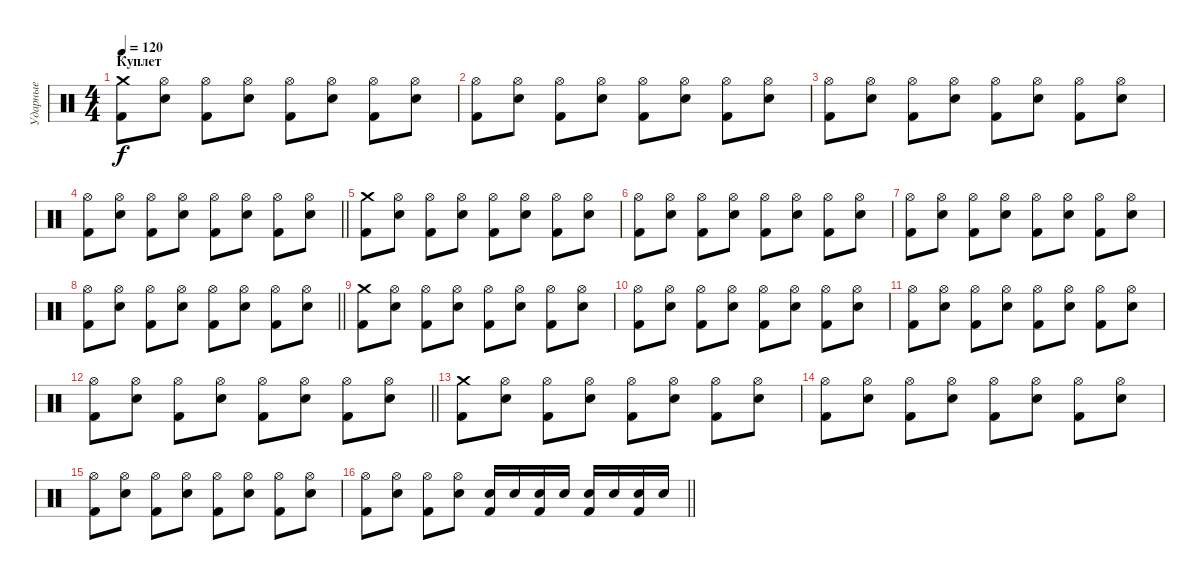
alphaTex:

\track ("Ударные" "Ударные") {instrument percussion}
\staff {score}
\articulation defaults
\ts (4 4)
\section ("" "Куплет")
\tempo 120
\clef neutral
\ks c
("Crash medium (hit)" "Kick (hit) 2").8{dy f} ("Hi-Hat (open)" "Snare (hit) 2").8 ("Hi-Hat (open)" "Kick (hit) 2").8 ("Hi-Hat (open)" "Snare (hit) 2").8 ("Hi-Hat (open)" "Kick (hit) 2").8 ("Hi-Hat (open)" "Snare (hit) 2").8 ("Hi-Hat (open)" "Kick (hit) 2").8 ("Hi-Hat (open)" "Snare (hit) 2").8 |
("Hi-Hat (open)" "Kick (hit) 2").8 ("Hi-Hat (open)" "Snare (hit) 2").8 ("Hi-Hat (open)" "Kick (hit) 2").8 ("Hi-Hat (open)" "Snare (hit) 2").8 ("Hi-Hat (open)" "Kick (hit) 2").8 ("Hi-Hat (open)" "Snare (hit) 2").8 ("Hi-Hat (open)" "Kick (hit) 2").8 ("Hi-Hat (open)" "Snare (hit) 2").8 |
("Hi-Hat (open)" "Kick (hit) 2").8 ("Hi-Hat (open)" "Snare (hit) 2").8 ("Hi-Hat (open)" "Kick (hit) 2").8 ("Hi-Hat (open)" "Snare (hit) 2").8 ("Hi-Hat (open)" "Kick (hit) 2").8 ("Hi-Hat (open)" "Snare (hit) 2").8 ("Hi-Hat (open)" "Kick (hit) 2").8 ("Hi-Hat (open)" "Snare (hit) 2").8 |
\barLineRight lightlight
("Hi-Hat (open)" "Kick (hit) 2").8 ("Hi-Hat (open)" "Snare (hit) 2").8 ("Hi-Hat (open)" "Kick (hit) 2").8 ("Hi-Hat (open)" "Snare (hit) 2").8 ("Hi-Hat (open)" "Kick (hit) 2").8 ("Hi-Hat (open)" "Snare (hit) 2").8 ("Hi-Hat (open)" "Kick (hit) 2").8 ("Hi-Hat (open)" "Snare (hit) 2").8 |
("Crash medium (hit)" "Kick (hit) 2").8 ("Hi-Hat (open)" "Snare (hit) 2").8 ("Hi-Hat (open)" "Kick (hit) 2").8 ("Hi-Hat (open)" "Snare (hit) 2").8 ("Hi-Hat (open)" "Kick (hit) 2").8 ("Hi-Hat (open)" "Snare (hit) 2").8 ("Hi-Hat (open)" "Kick (hit) 2").8 ("Hi-Hat (open)" "Snare (hit) 2").8 |
("Hi-Hat (open)" "Kick (hit) 2").8 ("Hi-Hat (open)" "Snare (hit) 2").8 ("Hi-Hat (open)" "Kick (hit) 2").8 ("Hi-Hat (open)" "Snare (hit) 2").8 ("Hi-Hat (open)" "Kick (hit) 2").8 ("Hi-Hat (open)" "Snare (hit) 2").8 ("Hi-Hat (open)" "Kick (hit) 2").8 ("Hi-Hat (open)" "Snare (hit) 2").8 |
("Hi-Hat (open)" "Kick (hit) 2").8 ("Hi-Hat (open)" "Snare (hit) 2").8 ("Hi-Hat (open)" "Kick (hit) 2").8 ("Hi-Hat (open)" "Snare (hit) 2").8 ("Hi-Hat (open)" "Kick (hit) 2").8 ("Hi-Hat (open)" "Snare (hit) 2").8 ("Hi-Hat (open)" "Kick (hit) 2").8 ("Hi-Hat (open)" "Snare (hit) 2").8 |
\barLineRight lightlight
("Hi-Hat (open)" "Kick (hit) 2").8 ("Hi-Hat (open)" "Snare (hit) 2").8 ("Hi-Hat (open)" "Kick (hit) 2").8 ("Hi-Hat (open)" "Snare (hit) 2").8 ("Hi-Hat (open)" "Kick (hit) 2").8 ("Hi-Hat (open)" "Snare (hit) 2").8 ("Hi-Hat (open)" "Kick (hit) 2").8 ("Hi-Hat (open)" "Snare (hit) 2").8 |
("Crash medium (hit)" "Kick (hit) 2").8 ("Hi-Hat (open)" "Snare (hit) 2").8 ("Hi-Hat (open)" "Kick (hit) 2").8 ("Hi-Hat (open)" "Snare (hit) 2").8 ("Hi-Hat (open)" "Kick (hit) 2").8 ("Hi-Hat (open)" "Snare (hit) 2").8 ("Hi-Hat (open)" "Kick (hit) 2").8 ("Hi-Hat (open)" "Snare (hit) 2").8 |
("Hi-Hat (open)" "Kick (hit) 2").8 ("Hi-Hat (open)" "Snare (hit) 2").8 ("Hi-Hat (open)" "Kick (hit) 2").8 ("Hi-Hat (open)" "Snare (hit) 2").8 ("Hi-Hat (open)" "Kick (hit) 2").8 ("Hi-Hat (open)" "Snare (hit) 2").8 ("Hi-Hat (open)" "Kick (hit) 2").8 ("Hi-Hat (open)" "Snare (hit) 2").8 |
("Hi-Hat (open)" "Kick (hit) 2").8 ("Hi-Hat (open)" "Snare (hit) 2").8 ("Hi-Hat (open)" "Kick (hit) 2").8 ("Hi-Hat (open)" "Snare (hit) 2").8 ("Hi-Hat (open)" "Kick (hit) 2").8 ("Hi-Hat (open)" "Snare (hit) 2").8 ("Hi-Hat (open)" "Kick (hit) 2").8 ("Hi-Hat (open)" "Snare (hit) 2").8 |
\barLineRight lightlight
("Hi-Hat (open)" "Kick (hit) 2").8 ("Hi-Hat (open)" "Snare (hit) 2").8 ("Hi-Hat (open)" "Kick (hit) 2").8 ("Hi-Hat (open)" "Snare (hit) 2").8 ("Hi-Hat (open)" "Kick (hit) 2").8 ("Hi-Hat (open)" "Snare (hit) 2").8 ("Hi-Hat (open)" "Kick (hit) 2").8 ("Hi-Hat (open)" "Snare (hit) 2").8 |
("Crash medium (hit)" "Kick (hit) 2").8 ("Hi-Hat (open)" "Snare (hit) 2").8 ("Hi-Hat (open)" "Kick (hit) 2").8 ("Hi-Hat (open)" "Snare (hit) 2").8 ("Hi-Hat (open)" "Kick (hit) 2").8 ("Hi-Hat (open)" "Snare (hit) 2").8 ("Hi-Hat (open)" "Kick (hit) 2").8 ("Hi-Hat (open)" "Snare (hit) 2").8 |
("Hi-Hat (open)" "Kick (hit) 2").8 ("Hi-Hat (open)" "Snare (hit) 2").8 ("Hi-Hat (open)" "Kick (hit) 2").8 ("Hi-Hat (open)" "Snare (hit) 2").8 ("Hi-Hat (open)" "Kick (hit) 2").8 ("Hi-Hat (open)" "Snare (hit) 2").8 ("Hi-Hat (open)" "Kick (hit) 2").8 ("Hi-Hat (open)" "Snare (hit) 2").8 |
("Hi-Hat (open)" "Kick (hit) 2").8 ("Hi-Hat (open)" "Snare (hit) 2").8 ("Hi-Hat (open)" "Kick (hit) 2").8 ("Hi-Hat (open)" "Snare (hit) 2").8 ("Hi-Hat (open)" "Kick (hit) 2").8 ("Hi-Hat (open)" "Snare (hit) 2").8 ("Hi-Hat (open)" "Kick (hit) 2").8 ("Hi-Hat (open)" "Snare (hit) 2").8 |
\barLineRight lightlight
("Hi-Hat (open)" "Kick (hit) 2").8 ("Hi-Hat (open)" "Snare (hit) 2").8 ("Hi-Hat (open)" "Kick (hit) 2").8 ("Hi-Hat (open)" "Snare (hit) 2").8 ("Snare (hit) 2" "Kick (hit) 2").16 "Snare (hit) 2".16 ("Snare (hit) 2" "Kick (hit) 2").16 "Snare (hit) 2".16 ("Snare (hit) 2" "Kick (hit) 2").16 "Snare (hit) 2".16 ("Snare (hit) 2" "Kick (hit) 2").16 "Snare (hit) 2".16
